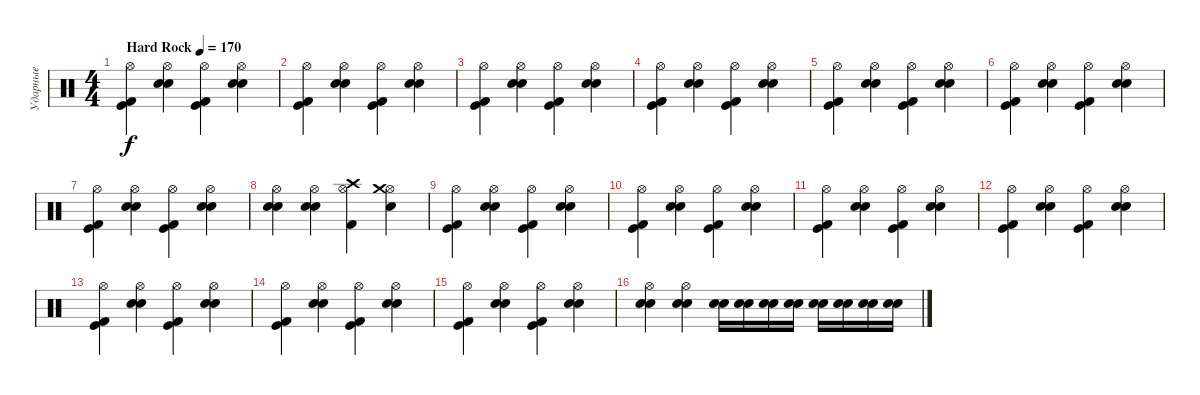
\track ("Ударные" "Ударные") {instrument percussion}
\staff {score}
\articulation defaults
\ts (4 4)
\tempo (170 "Hard Rock")
\clef neutral
\ks c
("Hi-Hat (open)" "Kick (hit)" "Kick (hit) 2").4{dy f} ("Hi-Hat (open)" "Electric Snare (hit)" "Snare (hit) 2").4 ("Hi-Hat (open)" "Kick (hit)" "Kick (hit) 2").4 ("Hi-Hat (open)" "Electric Snare (hit)" "Snare (hit) 2").4 |
("Hi-Hat (open)" "Kick (hit)" "Kick (hit) 2").4 ("Hi-Hat (open)" "Electric Snare (hit)" "Snare (hit) 2").4 ("Hi-Hat (open)" "Kick (hit)" "Kick (hit) 2").4 ("Hi-Hat (open)" "Electric Snare (hit)" "Snare (hit) 2").4 |
("Hi-Hat (open)" "Kick (hit)" "Kick (hit) 2").4 ("Hi-Hat (open)" "Electric Snare (hit)" "Snare (hit) 2").4 ("Hi-Hat (open)" "Kick (hit)" "Kick (hit) 2").4 ("Hi-Hat (open)" "Electric Snare (hit)" "Snare (hit) 2").4 |
("Hi-Hat (open)" "Kick (hit)" "Kick (hit) 2").4 ("Hi-Hat (open)" "Electric Snare (hit)" "Snare (hit) 2").4 ("Hi-Hat (open)" "Kick (hit)" "Kick (hit) 2").4 ("Hi-Hat (open)" "Electric Snare (hit)" "Snare (hit) 2").4 |
("Hi-Hat (open)" "Kick (hit)" "Kick (hit) 2").4 ("Hi-Hat (open)" "Electric Snare (hit)" "Snare (hit) 2").4 ("Hi-Hat (open)" "Kick (hit)" "Kick (hit) 2").4 ("Hi-Hat (open)" "Electric Snare (hit)" "Snare (hit) 2").4 |
("Hi-Hat (open)" "Kick (hit)" "Kick (hit) 2").4 ("Hi-Hat (open)" "Electric Snare (hit)" "Snare (hit) 2").4 ("Hi-Hat (open)" "Kick (hit)" "Kick (hit) 2").4 ("Hi-Hat (open)" "Electric Snare (hit)" "Snare (hit) 2").4 |
("Hi-Hat (open)" "Kick (hit)" "Kick (hit) 2").4 ("Hi-Hat (open)" "Electric Snare (hit)" "Snare (hit) 2").4 ("Hi-Hat (open)" "Kick (hit)" "Kick (hit) 2").4 ("Hi-Hat (open)" "Electric Snare (hit)" "Snare (hit) 2").4 |
("Hi-Hat (open)" "Electric Snare (hit)" "Snare (hit) 2").4 ("Hi-Hat (open)" "Electric Snare (hit)" "Snare (hit) 2").4 ("Hi-Hat (open)" "Crash high (hit)" "Kick (hit) 2").4 ("Hi-Hat (open)" "Crash medium (hit)" "Snare (hit) 2").4 |
("Hi-Hat (open)" "Kick (hit)" "Kick (hit) 2").4 ("Hi-Hat (open)" "Electric Snare (hit)" "Snare (hit) 2").4 ("Hi-Hat (open)" "Kick (hit)" "Kick (hit) 2").4 ("Hi-Hat (open)" "Electric Snare (hit)" "Snare (hit) 2").4 |
("Hi-Hat (open)" "Kick (hit)" "Kick (hit) 2").4 ("Hi-Hat (open)" "Electric Snare (hit)" "Snare (hit) 2").4 ("Hi-Hat (open)" "Kick (hit)" "Kick (hit) 2").4 ("Hi-Hat (open)" "Electric Snare (hit)" "Snare (hit) 2").4 |
("Hi-Hat (open)" "Kick (hit)" "Kick (hit) 2").4 ("Hi-Hat (open)" "Electric Snare (hit)" "Snare (hit) 2").4 ("Hi-Hat (open)" "Kick (hit)" "Kick (hit) 2").4 ("Hi-Hat (open)" "Electric Snare (hit)" "Snare (hit) 2").4 |
("Hi-Hat (open)" "Kick (hit)" "Kick (hit) 2").4 ("Hi-Hat (open)" "Electric Snare (hit)" "Snare (hit) 2").4 ("Hi-Hat (open)" "Kick (hit)" "Kick (hit) 2").4 ("Hi-Hat (open)" "Electric Snare (hit)" "Snare (hit) 2").4 |
("Hi-Hat (open)" "Kick (hit)" "Kick (hit) 2").4 ("Hi-Hat (open)" "Electric Snare (hit)" "Snare (hit) 2").4 ("Hi-Hat (open)" "Kick (hit)" "Kick (hit) 2").4 ("Hi-Hat (open)" "Electric Snare (hit)" "Snare (hit) 2").4 |
("Hi-Hat (open)" "Kick (hit)" "Kick (hit) 2").4 ("Hi-Hat (open)" "Electric Snare (hit)" "Snare (hit) 2").4 ("Hi-Hat (open)" "Kick (hit)" "Kick (hit) 2").4 ("Hi-Hat (open)" "Electric Snare (hit)" "Snare (hit) 2").4 |
("Hi-Hat (open)" "Kick (hit)" "Kick (hit) 2").4 ("Hi-Hat (open)" "Electric Snare (hit)" "Snare (hit) 2").4 ("Hi-Hat (open)" "Kick (hit)" "Kick (hit) 2").4 ("Hi-Hat (open)" "Electric Snare (hit)" "Snare (hit) 2").4 |
("Hi-Hat (open)" "Electric Snare (hit)" "Snare (hit) 2").4 ("Hi-Hat (open)" "Electric Snare (hit)" "Snare (hit) 2").4 ("Snare (hit) 2" "Electric Snare (hit)").16 ("Snare (hit) 2" "Electric Snare (hit)").16 ("Snare (hit) 2" "Electric Snare (hit)").16 ("Snare (hit) 2" "Electric Snare (hit)").16 ("Snare (hit) 2" "Electric Snare (hit)").16 ("Snare (hit) 2" "Electric Snare (hit)").16 ("Snare (hit) 2" "Electric Snare (hit)").16 ("Snare (hit) 2" "Electric Snare (hit)").16
